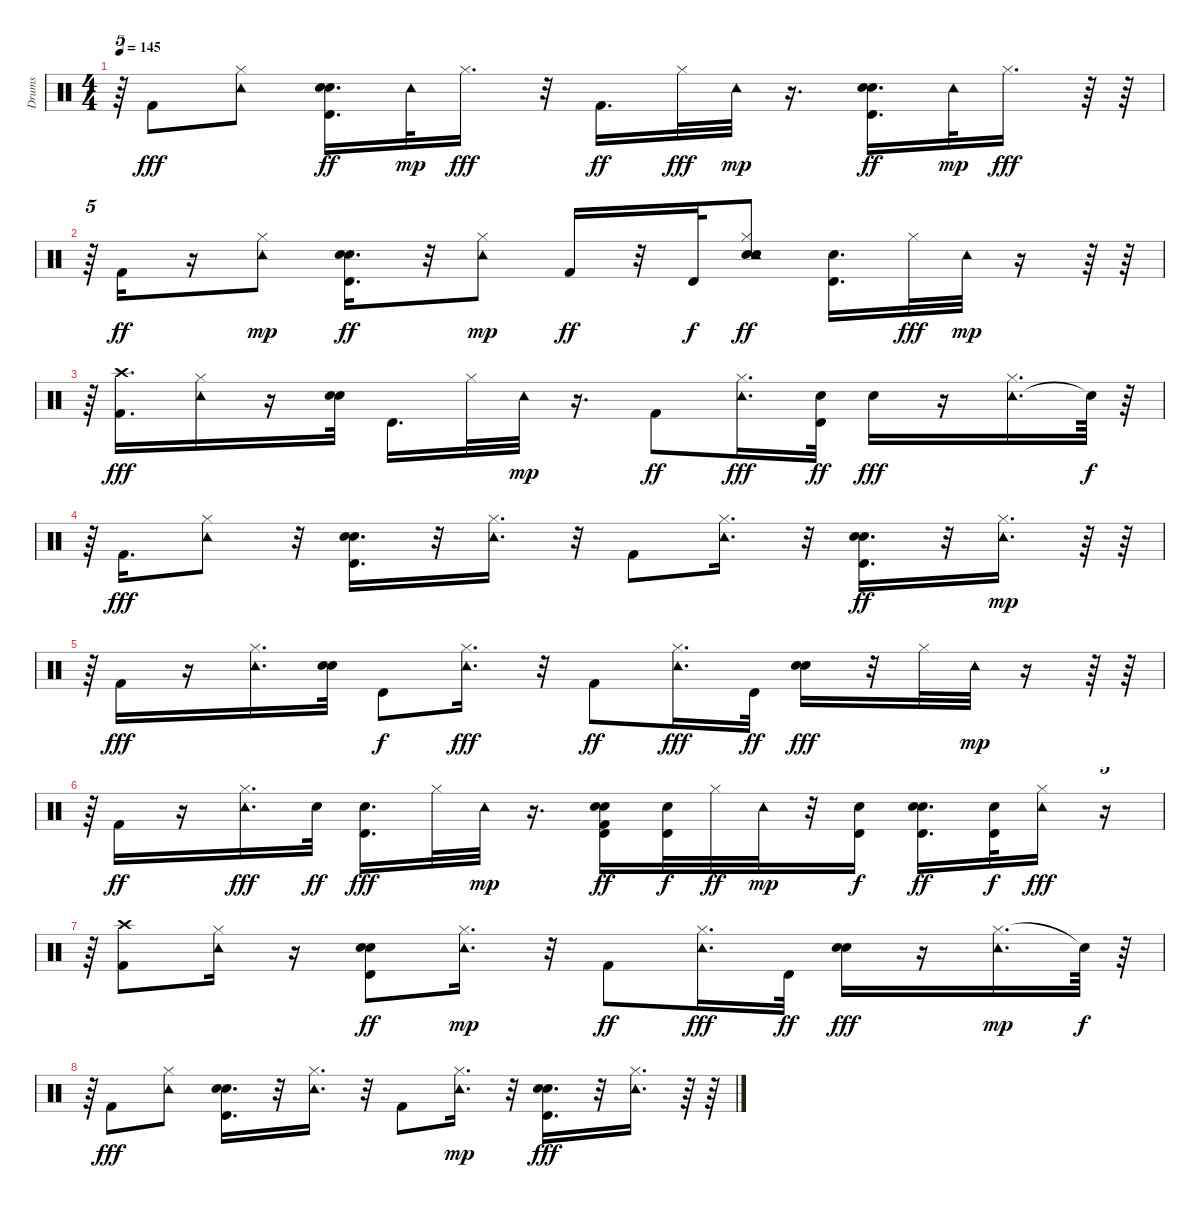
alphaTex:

\track ("Drums" "Drums") {instrument percussion}
\staff {score}
\articulation defaults
\ts (4 4)
\tempo 145
\clef neutral
\ks c
r.64{tu (5 4) dy fff} "Kick (hit) 2".8 ("Tambourine (hit)" "Hi-Hat (closed)").8 ("Hand Clap (hit)" "Snare (hit) 2" "Timbale high (hit)").16{d dy ff} "Tambourine (hit)".32{dy mp} "Hi-Hat (closed)".16{d dy fff} r.32 "Kick (hit) 2".16{d dy ff} "Hi-Hat (closed)".32{dy fff} "Tambourine (hit)".32{dy mp} r.16{d} ("Hand Clap (hit)" "Snare (hit) 2" "Timbale high (hit)").16{d dy ff} "Tambourine (hit)".32{dy mp} "Hi-Hat (closed)".16{d dy fff} r.64 r.64 |
r.64{tu (5 4)} "Kick (hit) 2".16{dy ff} r.16 ("Hi-Hat (closed)" "Tambourine (hit)").8{dy mp} ("Timbale high (hit)" "Hand Clap (hit)" "Snare (hit) 2").16{d dy ff} r.32 ("Hi-Hat (closed)" "Tambourine (hit)").8{dy mp} "Kick (hit) 2".16{dy ff} r.32 "Timbale high (hit)".32{dy f} ("Snare (hit) 2" "Tambourine (hit)" "Hand Clap (hit)" "Hi-Hat (closed)").8{dy ff} ("Snare (hit) 2" "Timbale high (hit)").16{d} "Hi-Hat (closed)".32{dy fff} "Tambourine (hit)".32{dy mp} r.16 r.64 r.64 |
r.64{tu (5 4)} ("Kick (hit) 2" "Crash high (hit)").16{d dy fff} ("Tambourine (hit)" "Hi-Hat (closed)").16 r.16 ("Snare (hit) 2" "Hand Clap (hit)").32 "Timbale high (hit)".16{d} "Hi-Hat (closed)".32 "Tambourine (hit)".32{dy mp} r.16{d} "Kick (hit) 2".8{dy ff} ("Tambourine (hit)" "Hi-Hat (closed)").16{d dy fff} ("Snare (hit) 2" "Timbale high (hit)").32{dy ff} "Hand Clap (hit)".16{dy fff} r.16 ("Tambourine (hit)" "Hi-Hat (closed)").16{d} "Snare (hit)"{t}.64{dy f} r.64 |
r.64{tu (5 4)} "Kick (hit) 2".16{d dy fff} ("Tambourine (hit)" "Hi-Hat (closed)").8 r.32 ("Snare (hit) 2" "Timbale high (hit)" "Hand Clap (hit)").16{d} r.32 ("Tambourine (hit)" "Hi-Hat (closed)").16{d} r.32 "Kick (hit) 2".8 ("Tambourine (hit)" "Hi-Hat (closed)").16{d} r.32 ("Timbale high (hit)" "Hand Clap (hit)" "Snare (hit) 2").16{d dy ff} r.32 ("Hi-Hat (closed)" "Tambourine (hit)").16{d dy mp} r.64 r.64 |
r.64{tu (5 4)} "Kick (hit) 2".16{dy fff} r.16 ("Tambourine (hit)" "Hi-Hat (closed)").16{d} ("Snare (hit) 2" "Hand Clap (hit)").32 "Timbale high (hit)".8{dy f} ("Tambourine (hit)" "Hi-Hat (closed)").16{d dy fff} r.32 "Kick (hit) 2".8{dy ff} ("Tambourine (hit)" "Hi-Hat (closed)").16{d dy fff} "Timbale high (hit)".32{dy ff} ("Snare (hit) 2" "Hand Clap (hit)").16{dy fff} r.32 "Hi-Hat (closed)".32 "Tambourine (hit)".32{dy mp} r.16 r.64 r.64 |
r.64{tu (5 4)} "Kick (hit) 2".16{dy ff} r.16 ("Tambourine (hit)" "Hi-Hat (closed)").16{d dy fff} "Snare (hit) 2".32{dy ff} ("Timbale high (hit)" "Hand Clap (hit)").16{d dy fff} "Hi-Hat (closed)".32 "Tambourine (hit)".32{dy mp} r.16{d} ("Hand Clap (hit)" "Kick (hit) 2" "Snare (hit) 2" "Timbale high (hit)").16{dy ff} ("Timbale high (hit)" "Snare (hit) 2").32{dy f} "Hi-Hat (closed)".32{dy ff} "Tambourine (hit)".32{dy mp} r.32 ("Snare (hit) 2" "Timbale high (hit)").16{dy f} ("Hand Clap (hit)" "Snare (hit) 2" "Timbale high (hit)").16{d dy ff} ("Snare (hit) 2" "Timbale high (hit)").32{dy f} ("Tambourine (hit)" "Hi-Hat (closed)").16{dy fff} r.16{tu (5 4)} |
r.64{tu (5 4)} ("Crash high (hit)" "Kick (hit) 2").8 ("Tambourine (hit)" "Hi-Hat (closed)").16 r.16 ("Timbale high (hit)" "Hand Clap (hit)" "Snare (hit) 2").8{dy ff} ("Hi-Hat (closed)" "Tambourine (hit)").16{d dy mp} r.32 "Kick (hit) 2".8{dy ff} ("Tambourine (hit)" "Hi-Hat (closed)").16{d dy fff} "Timbale high (hit)".32{dy ff} ("Snare (hit) 2" "Hand Clap (hit)").16{dy fff} r.16 ("Hi-Hat (closed)" "Tambourine (hit)").16{d dy mp} "Snare (hit)"{t}.64{dy f} r.64 |
r.64{tu (5 4)} "Kick (hit) 2".8{dy fff} ("Tambourine (hit)" "Hi-Hat (closed)").8 ("Timbale high (hit)" "Snare (hit) 2" "Hand Clap (hit)").16{d} r.32 ("Tambourine (hit)" "Hi-Hat (closed)").16{d} r.32 "Kick (hit) 2".8 ("Hi-Hat (closed)" "Tambourine (hit)").16{d dy mp} r.32 ("Snare (hit) 2" "Timbale high (hit)" "Hand Clap (hit)").16{d dy fff} r.32 ("Tambourine (hit)" "Hi-Hat (closed)").16{d} r.64 r.64
